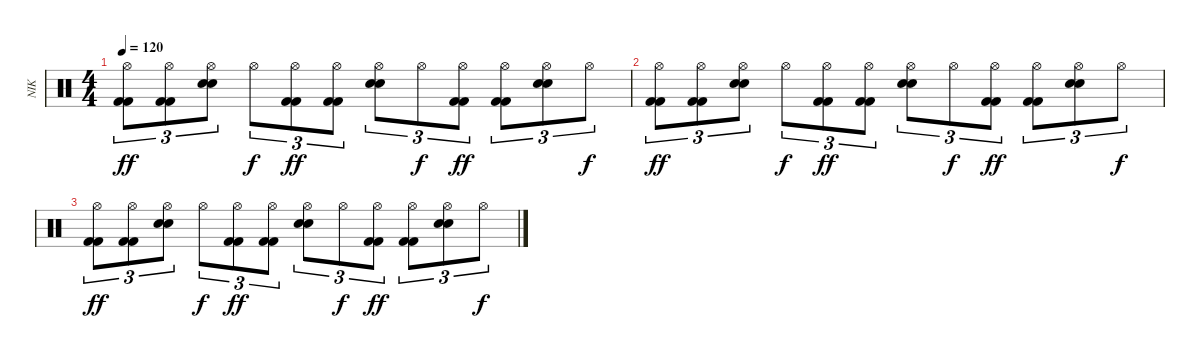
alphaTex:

\track ("NIK" "NIK") {instrument percussion}
\staff {score}
\articulation defaults
\ts (4 4)
\tempo 120
\clef neutral
\ks c
("Kick (hit) 2" "Kick (hit) 2" "Hi-Hat (open)").8{tu (3 2) dy ff} ("Kick (hit) 2" "Kick (hit) 2" "Hi-Hat (open)").8{tu (3 2)} ("Electric Snare (hit)" "Electric Snare (hit)" "Hi-Hat (open)").8{tu (3 2)} "Hi-Hat (open)".8{tu (3 2) dy f} ("Kick (hit) 2" "Kick (hit) 2" "Hi-Hat (open)").8{tu (3 2) dy ff} ("Kick (hit) 2" "Kick (hit) 2" "Hi-Hat (open)").8{tu (3 2)} ("Electric Snare (hit)" "Electric Snare (hit)" "Hi-Hat (open)").8{tu (3 2)} "Hi-Hat (open)".8{tu (3 2) dy f} ("Kick (hit) 2" "Kick (hit) 2" "Hi-Hat (open)").8{tu (3 2) dy ff} ("Kick (hit) 2" "Kick (hit) 2" "Hi-Hat (open)").8{tu (3 2)} ("Electric Snare (hit)" "Electric Snare (hit)" "Hi-Hat (open)").8{tu (3 2)} "Hi-Hat (open)".8{tu (3 2) dy f} |
("Kick (hit) 2" "Kick (hit) 2" "Hi-Hat (open)").8{tu (3 2) dy ff} ("Kick (hit) 2" "Kick (hit) 2" "Hi-Hat (open)").8{tu (3 2)} ("Electric Snare (hit)" "Electric Snare (hit)" "Hi-Hat (open)").8{tu (3 2)} "Hi-Hat (open)".8{tu (3 2) dy f} ("Kick (hit) 2" "Kick (hit) 2" "Hi-Hat (open)").8{tu (3 2) dy ff} ("Kick (hit) 2" "Kick (hit) 2" "Hi-Hat (open)").8{tu (3 2)} ("Electric Snare (hit)" "Electric Snare (hit)" "Hi-Hat (open)").8{tu (3 2)} "Hi-Hat (open)".8{tu (3 2) dy f} ("Kick (hit) 2" "Kick (hit) 2" "Hi-Hat (open)").8{tu (3 2) dy ff} ("Kick (hit) 2" "Kick (hit) 2" "Hi-Hat (open)").8{tu (3 2)} ("Electric Snare (hit)" "Electric Snare (hit)" "Hi-Hat (open)").8{tu (3 2)} "Hi-Hat (open)".8{tu (3 2) dy f} |
("Kick (hit) 2" "Kick (hit) 2" "Hi-Hat (open)").8{tu (3 2) dy ff} ("Kick (hit) 2" "Kick (hit) 2" "Hi-Hat (open)").8{tu (3 2)} ("Electric Snare (hit)" "Electric Snare (hit)" "Hi-Hat (open)").8{tu (3 2)} "Hi-Hat (open)".8{tu (3 2) dy f} ("Kick (hit) 2" "Kick (hit) 2" "Hi-Hat (open)").8{tu (3 2) dy ff} ("Kick (hit) 2" "Kick (hit) 2" "Hi-Hat (open)").8{tu (3 2)} ("Electric Snare (hit)" "Electric Snare (hit)" "Hi-Hat (open)").8{tu (3 2)} "Hi-Hat (open)".8{tu (3 2) dy f} ("Kick (hit) 2" "Kick (hit) 2" "Hi-Hat (open)").8{tu (3 2) dy ff} ("Kick (hit) 2" "Kick (hit) 2" "Hi-Hat (open)").8{tu (3 2)} ("Electric Snare (hit)" "Electric Snare (hit)" "Hi-Hat (open)").8{tu (3 2)} "Hi-Hat (open)".8{tu (3 2) dy f}
